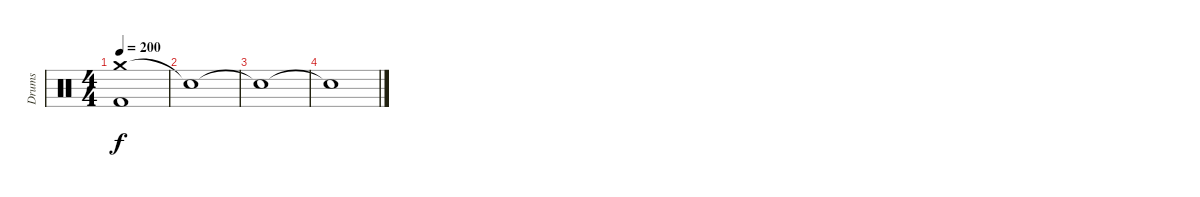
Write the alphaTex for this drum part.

\track ("Drums" "Drums") {instrument percussion}
\staff {score}
\articulation defaults
\ts (4 4)
\tempo 200
\clef neutral
\ks c
("Crash medium (hit)" "Kick (hit) 2").1{dy f} |
"Snare (hit)"{t}.1 |
"Snare (hit)"{t}.1 |
"Snare (hit)"{t}.1
